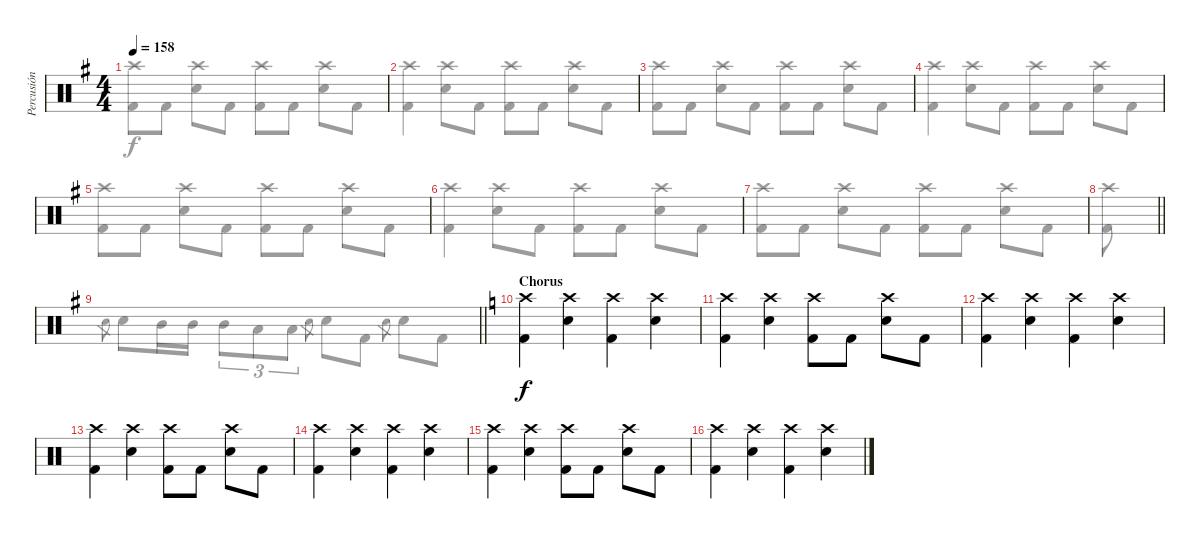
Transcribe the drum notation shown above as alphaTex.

\track ("Percusión" "Percusión") {instrument percussion}
\staff {score}
\articulation defaults
\voice
\ts (4 4)
\tempo 158
\clef neutral
\ks g
|
|
|
|
|
|
|
\barLineRight lightlight
|
\barLineRight lightlight
|
\section ("" "Chorus")
\ks c
("Crash high (hit)" "Kick (hit) 2").4 ("Crash high (hit)" "Snare (hit) 2").4 ("Crash high (hit)" "Kick (hit) 2").4 ("Crash high (hit)" "Snare (hit) 2").4 |
("Crash high (hit)" "Kick (hit) 2").4 ("Crash high (hit)" "Snare (hit) 2").4 ("Crash high (hit)" "Kick (hit) 2").8 "Kick (hit) 2".8 ("Crash high (hit)" "Snare (hit) 2").8 "Kick (hit) 2".8 |
("Crash high (hit)" "Kick (hit) 2").4 ("Crash high (hit)" "Snare (hit) 2").4 ("Crash high (hit)" "Kick (hit) 2").4 ("Crash high (hit)" "Snare (hit) 2").4 |
("Crash high (hit)" "Kick (hit) 2").4 ("Crash high (hit)" "Snare (hit) 2").4 ("Crash high (hit)" "Kick (hit) 2").8 "Kick (hit) 2".8 ("Crash high (hit)" "Snare (hit) 2").8 "Kick (hit) 2".8 |
("Crash high (hit)" "Kick (hit) 2").4 ("Crash high (hit)" "Snare (hit) 2").4 ("Crash high (hit)" "Kick (hit) 2").4 ("Crash high (hit)" "Snare (hit) 2").4 |
("Crash high (hit)" "Kick (hit) 2").4 ("Crash high (hit)" "Snare (hit) 2").4 ("Crash high (hit)" "Kick (hit) 2").8 "Kick (hit) 2".8 ("Crash high (hit)" "Snare (hit) 2").8 "Kick (hit) 2".8 |
("Crash high (hit)" "Kick (hit) 2").4 ("Crash high (hit)" "Snare (hit) 2").4 ("Crash high (hit)" "Kick (hit) 2").4 ("Crash high (hit)" "Snare (hit) 2").4
\voice
\clef neutral
\ottava regular
\simile none
\ks g
("Crash high (hit)" "Kick (hit) 2").8{dy f} "Kick (hit) 2".8 ("Crash high (hit)" "Snare (hit) 2").8 "Kick (hit) 2".8 ("Crash high (hit)" "Kick (hit) 2").8 "Kick (hit) 2".8 ("Crash high (hit)" "Snare (hit) 2").8 "Kick (hit) 2".8 |
("Crash high (hit)" "Kick (hit) 2").4 ("Crash high (hit)" "Snare (hit) 2").8 "Kick (hit) 2".8 ("Crash high (hit)" "Kick (hit) 2").8 "Kick (hit) 2".8 ("Crash high (hit)" "Snare (hit) 2").8 "Kick (hit) 2".8 |
("Crash high (hit)" "Kick (hit) 2").8 "Kick (hit) 2".8 ("Crash high (hit)" "Snare (hit) 2").8 "Kick (hit) 2".8 ("Crash high (hit)" "Kick (hit) 2").8 "Kick (hit) 2".8 ("Crash high (hit)" "Snare (hit) 2").8 "Kick (hit) 2".8 |
("Crash high (hit)" "Kick (hit) 2").4 ("Crash high (hit)" "Snare (hit) 2").8 "Kick (hit) 2".8 ("Crash high (hit)" "Kick (hit) 2").8 "Kick (hit) 2".8 ("Crash high (hit)" "Snare (hit) 2").8 "Kick (hit) 2".8 |
("Crash high (hit)" "Kick (hit) 2").8 "Kick (hit) 2".8 ("Crash high (hit)" "Snare (hit) 2").8 "Kick (hit) 2".8 ("Crash high (hit)" "Kick (hit) 2").8 "Kick (hit) 2".8 ("Crash high (hit)" "Snare (hit) 2").8 "Kick (hit) 2".8 |
("Crash high (hit)" "Kick (hit) 2").4 ("Crash high (hit)" "Snare (hit) 2").8 "Kick (hit) 2".8 ("Crash high (hit)" "Kick (hit) 2").8 "Kick (hit) 2".8 ("Crash high (hit)" "Snare (hit) 2").8 "Kick (hit) 2".8 |
("Crash high (hit)" "Kick (hit) 2").8 "Kick (hit) 2".8 ("Crash high (hit)" "Snare (hit) 2").8 "Kick (hit) 2".8 ("Crash high (hit)" "Kick (hit) 2").8 "Kick (hit) 2".8 ("Crash high (hit)" "Snare (hit) 2").8 "Kick (hit) 2".8 |
\barLineRight lightlight
("Crash high (hit)" "Kick (hit) 2").8 |
\barLineRight lightlight "Snare (hit) 2".8{gr} "Snare (hit) 2".8 "Mid Tom (hit)".16 "Mid Tom (hit)".16 "Mid Tom (hit)".8{tu (3 2)} "Low Tom (hit)".8{tu (3 2)} "Low Tom (hit)".8{tu (3 2)} "Snare (hit) 2".8{gr} "Snare (hit) 2".8 "Kick (hit) 2".8 "Snare (hit) 2".8{gr} "Snare (hit) 2".8 "Kick (hit) 2".8
|
\ks c
|
|
|
|
|
|
